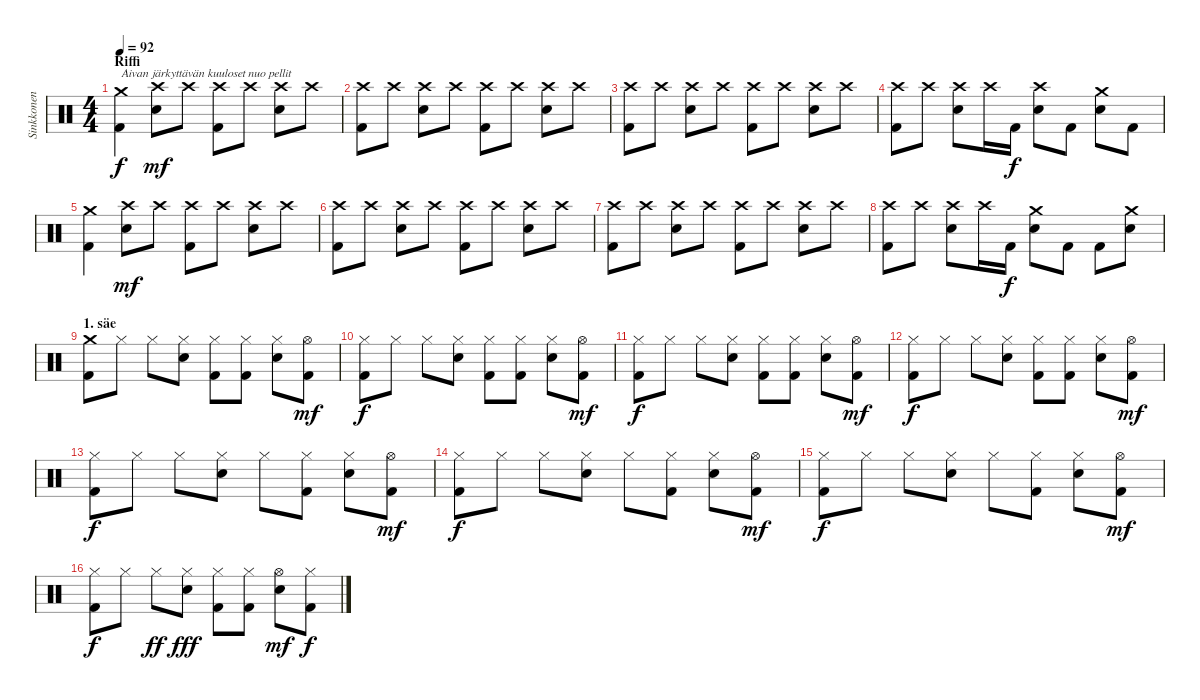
\track ("Sinkkonen" "Sinkkonen") {instrument percussion}
\staff {score}
\articulation defaults
\ts (4 4)
\section ("" "Riffi")
\tempo 92
\clef neutral
\ks c
("Kick (hit) 2" "Crash medium (hit)").4{txt "Aivan järkyttävän kuuloset nuo pellit" dy f} ("Crash high (hit)" "Snare (hit) 2").8{dy mf} "Crash high (hit)".8 ("Kick (hit) 2" "Crash high (hit)").8 "Crash high (hit)".8 ("Crash high (hit)" "Snare (hit) 2").8 "Crash high (hit)".8 |
("Kick (hit) 2" "Crash high (hit)").8 "Crash high (hit)".8 ("Crash high (hit)" "Snare (hit) 2").8 "Crash high (hit)".8 ("Kick (hit) 2" "Crash high (hit)").8 "Crash high (hit)".8 ("Crash high (hit)" "Snare (hit) 2").8 "Crash high (hit)".8 |
("Kick (hit) 2" "Crash high (hit)").8 "Crash high (hit)".8 ("Crash high (hit)" "Snare (hit) 2").8 "Crash high (hit)".8 ("Kick (hit) 2" "Crash high (hit)").8 "Crash high (hit)".8 ("Crash high (hit)" "Snare (hit) 2").8 "Crash high (hit)".8 |
("Kick (hit) 2" "Crash high (hit)").8 "Crash high (hit)".8 ("Crash high (hit)" "Snare (hit) 2").8 "Crash high (hit)".16 "Kick (hit) 2".16{dy f} ("Crash high (hit)" "Snare (hit) 2").8 "Kick (hit) 2".8 ("Crash medium (hit)" "Snare (hit) 2").8 "Kick (hit) 2".8 |
("Kick (hit) 2" "Crash medium (hit)").4 ("Crash high (hit)" "Snare (hit) 2").8{dy mf} "Crash high (hit)".8 ("Kick (hit) 2" "Crash high (hit)").8 "Crash high (hit)".8 ("Crash high (hit)" "Snare (hit) 2").8 "Crash high (hit)".8 |
("Kick (hit) 2" "Crash high (hit)").8 "Crash high (hit)".8 ("Crash high (hit)" "Snare (hit) 2").8 "Crash high (hit)".8 ("Kick (hit) 2" "Crash high (hit)").8 "Crash high (hit)".8 ("Crash high (hit)" "Snare (hit) 2").8 "Crash high (hit)".8 |
("Kick (hit) 2" "Crash high (hit)").8 "Crash high (hit)".8 ("Crash high (hit)" "Snare (hit) 2").8 "Crash high (hit)".8 ("Kick (hit) 2" "Crash high (hit)").8 "Crash high (hit)".8 ("Crash high (hit)" "Snare (hit) 2").8 "Crash high (hit)".8 |
("Kick (hit) 2" "Crash high (hit)").8 "Crash high (hit)".8 ("Crash high (hit)" "Snare (hit) 2").8 "Crash high (hit)".16 "Kick (hit) 2".16{dy f} ("Crash medium (hit)" "Snare (hit) 2").8 "Kick (hit) 2".8 "Kick (hit) 2".8 ("Crash medium (hit)" "Snare (hit) 2").8 |
\section ("" "1. säe")
("Kick (hit) 2" "Crash medium (hit)").8 "Hi-Hat (closed)".8 "Hi-Hat (closed)".8 ("Hi-Hat (closed)" "Snare (hit) 2").8 ("Kick (hit) 2" "Hi-Hat (closed)").8 ("Kick (hit) 2" "Hi-Hat (closed)").8 ("Hi-Hat (closed)" "Snare (hit) 2").8 ("Kick (hit) 2" "Hi-Hat (open)").8{dy mf} |
("Kick (hit) 2" "Hi-Hat (closed)").8{dy f} "Hi-Hat (closed)".8 "Hi-Hat (closed)".8 ("Hi-Hat (closed)" "Snare (hit) 2").8 ("Kick (hit) 2" "Hi-Hat (closed)").8 ("Kick (hit) 2" "Hi-Hat (closed)").8 ("Hi-Hat (closed)" "Snare (hit) 2").8 ("Kick (hit) 2" "Hi-Hat (open)").8{dy mf} |
("Kick (hit) 2" "Hi-Hat (closed)").8{dy f} "Hi-Hat (closed)".8 "Hi-Hat (closed)".8 ("Hi-Hat (closed)" "Snare (hit) 2").8 ("Kick (hit) 2" "Hi-Hat (closed)").8 ("Kick (hit) 2" "Hi-Hat (closed)").8 ("Hi-Hat (closed)" "Snare (hit) 2").8 ("Kick (hit) 2" "Hi-Hat (open)").8{dy mf} |
("Kick (hit) 2" "Hi-Hat (closed)").8{dy f} "Hi-Hat (closed)".8 "Hi-Hat (closed)".8 ("Hi-Hat (closed)" "Snare (hit) 2").8 ("Kick (hit) 2" "Hi-Hat (closed)").8 ("Kick (hit) 2" "Hi-Hat (closed)").8 ("Hi-Hat (closed)" "Snare (hit) 2").8 ("Kick (hit) 2" "Hi-Hat (open)").8{dy mf} |
("Kick (hit) 2" "Hi-Hat (closed)").8{dy f} "Hi-Hat (closed)".8 "Hi-Hat (closed)".8 ("Hi-Hat (closed)" "Snare (hit) 2").8 "Hi-Hat (closed)".8 ("Kick (hit) 2" "Hi-Hat (closed)").8 ("Hi-Hat (closed)" "Snare (hit) 2").8 ("Kick (hit) 2" "Hi-Hat (open)").8{dy mf} |
("Kick (hit) 2" "Hi-Hat (closed)").8{dy f} "Hi-Hat (closed)".8 "Hi-Hat (closed)".8 ("Hi-Hat (closed)" "Snare (hit) 2").8 "Hi-Hat (closed)".8 ("Kick (hit) 2" "Hi-Hat (closed)").8 ("Hi-Hat (closed)" "Snare (hit) 2").8 ("Kick (hit) 2" "Hi-Hat (open)").8{dy mf} |
("Kick (hit) 2" "Hi-Hat (closed)").8{dy f} "Hi-Hat (closed)".8 "Hi-Hat (closed)".8 ("Hi-Hat (closed)" "Snare (hit) 2").8 "Hi-Hat (closed)".8 ("Kick (hit) 2" "Hi-Hat (closed)").8 ("Hi-Hat (closed)" "Snare (hit) 2").8 ("Kick (hit) 2" "Hi-Hat (open)").8{dy mf} |
("Kick (hit) 2" "Hi-Hat (closed)").8{dy f} "Hi-Hat (closed)".8 "Hi-Hat (closed)".8{dy ff} ("Hi-Hat (closed)" "Snare (hit) 2").8{dy fff} ("Kick (hit) 2" "Hi-Hat (closed)").8 ("Kick (hit) 2" "Hi-Hat (closed)").8 ("Hi-Hat (open)" "Snare (hit) 2").8{dy mf} ("Kick (hit) 2" "Hi-Hat (closed)").8{dy f}
